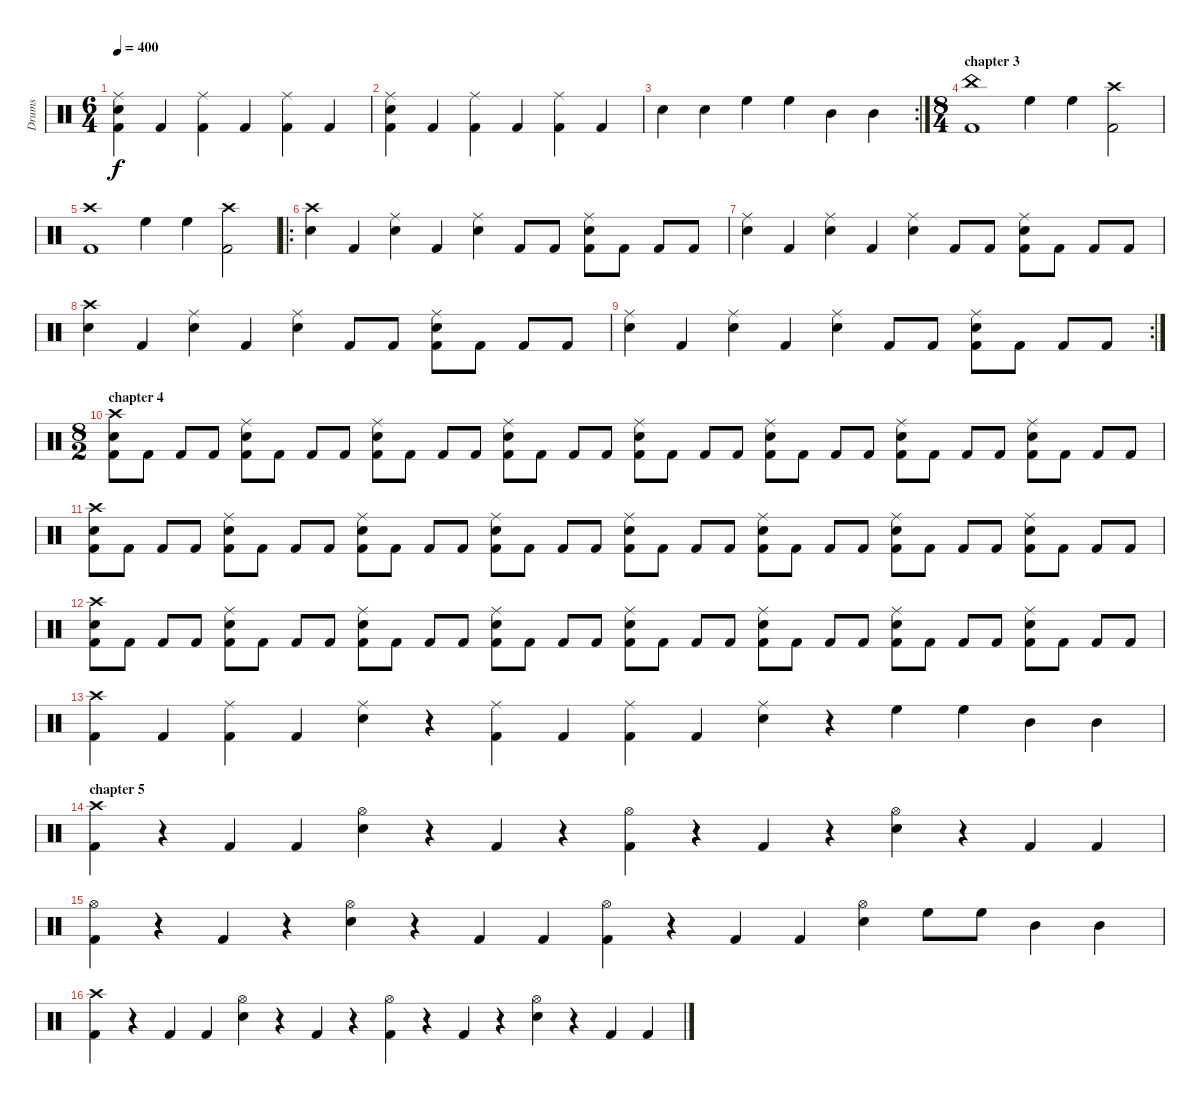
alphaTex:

\track ("Drums" "Drums") {instrument percussion}
\staff {score}
\articulation defaults
\ts (6 4)
\tempo 400
\clef neutral
\ks c
("Ride (middle)" "Snare (hit) 2" "Kick (hit) 2").4{dy f} "Kick (hit) 2".4 ("Ride (middle)" "Kick (hit) 2").4 "Kick (hit) 2".4 ("Ride (middle)" "Kick (hit) 2").4 "Kick (hit) 2".4 |
("Ride (middle)" "Snare (hit) 2" "Kick (hit) 2").4 "Kick (hit) 2".4 ("Ride (middle)" "Kick (hit) 2").4 "Kick (hit) 2".4 ("Ride (middle)" "Kick (hit) 2").4 "Kick (hit) 2".4 |
\rc 2 "Snare (hit) 2".4 "Snare (hit) 2".4 "High Floor Tom (hit)".4 "High Floor Tom (hit)".4 "Mid Tom (hit)".4 "Mid Tom (hit)".4
|
\ts (8 4)
\section ("" "chapter 3")
("China (hit)" "Kick (hit) 2").1 "High Floor Tom (hit)".4 "High Floor Tom (hit)".4 ("Crash high (hit)" "Kick (hit) 2").2 |
("Crash high (hit)" "Kick (hit) 2").1 "High Floor Tom (hit)".4 "High Floor Tom (hit)".4 ("Crash high (hit)" "Kick (hit) 2").2 |
\ro
("Crash high (hit)" "Snare (hit) 2").4 "Kick (hit) 2".4 ("Ride (middle)" "Snare (hit) 2").4 "Kick (hit) 2".4 ("Ride (middle)" "Snare (hit) 2").4 "Kick (hit) 2".8 "Kick (hit) 2".8 ("Ride (middle)" "Snare (hit) 2" "Kick (hit) 2").8 "Kick (hit) 2".8 "Kick (hit) 2".8 "Kick (hit) 2".8 |
("Ride (middle)" "Snare (hit) 2").4 "Kick (hit) 2".4 ("Ride (middle)" "Snare (hit) 2").4 "Kick (hit) 2".4 ("Ride (middle)" "Snare (hit) 2").4 "Kick (hit) 2".8 "Kick (hit) 2".8 ("Ride (middle)" "Snare (hit) 2" "Kick (hit) 2").8 "Kick (hit) 2".8 "Kick (hit) 2".8 "Kick (hit) 2".8 |
("Crash high (hit)" "Snare (hit) 2").4 "Kick (hit) 2".4 ("Ride (middle)" "Snare (hit) 2").4 "Kick (hit) 2".4 ("Ride (middle)" "Snare (hit) 2").4 "Kick (hit) 2".8 "Kick (hit) 2".8 ("Ride (middle)" "Snare (hit) 2" "Kick (hit) 2").8 "Kick (hit) 2".8 "Kick (hit) 2".8 "Kick (hit) 2".8 |
\rc 2
("Ride (middle)" "Snare (hit) 2").4 "Kick (hit) 2".4 ("Ride (middle)" "Snare (hit) 2").4 "Kick (hit) 2".4 ("Ride (middle)" "Snare (hit) 2").4 "Kick (hit) 2".8 "Kick (hit) 2".8 ("Ride (middle)" "Snare (hit) 2" "Kick (hit) 2").8 "Kick (hit) 2".8 "Kick (hit) 2".8 "Kick (hit) 2".8 |
\ts (8 2)
\section ("" "chapter 4")
("Crash high (hit)" "Snare (hit) 2" "Kick (hit) 2").8 "Kick (hit) 2".8 "Kick (hit) 2".8 "Kick (hit) 2".8 ("Ride (middle)" "Snare (hit) 2" "Kick (hit) 2").8 "Kick (hit) 2".8 "Kick (hit) 2".8 "Kick (hit) 2".8 ("Ride (middle)" "Snare (hit) 2" "Kick (hit) 2").8 "Kick (hit) 2".8 "Kick (hit) 2".8 "Kick (hit) 2".8 ("Ride (middle)" "Snare (hit) 2" "Kick (hit) 2").8 "Kick (hit) 2".8 "Kick (hit) 2".8 "Kick (hit) 2".8 ("Ride (middle)" "Snare (hit) 2" "Kick (hit) 2").8 "Kick (hit) 2".8 "Kick (hit) 2".8 "Kick (hit) 2".8 ("Ride (middle)" "Snare (hit) 2" "Kick (hit) 2").8 "Kick (hit) 2".8 "Kick (hit) 2".8 "Kick (hit) 2".8 ("Ride (middle)" "Snare (hit) 2" "Kick (hit) 2").8 "Kick (hit) 2".8 "Kick (hit) 2".8 "Kick (hit) 2".8 ("Ride (middle)" "Snare (hit) 2" "Kick (hit) 2").8 "Kick (hit) 2".8 "Kick (hit) 2".8 "Kick (hit) 2".8 |
("Crash high (hit)" "Snare (hit) 2" "Kick (hit) 2").8 "Kick (hit) 2".8 "Kick (hit) 2".8 "Kick (hit) 2".8 ("Ride (middle)" "Snare (hit) 2" "Kick (hit) 2").8 "Kick (hit) 2".8 "Kick (hit) 2".8 "Kick (hit) 2".8 ("Ride (middle)" "Snare (hit) 2" "Kick (hit) 2").8 "Kick (hit) 2".8 "Kick (hit) 2".8 "Kick (hit) 2".8 ("Ride (middle)" "Snare (hit) 2" "Kick (hit) 2").8 "Kick (hit) 2".8 "Kick (hit) 2".8 "Kick (hit) 2".8 ("Ride (middle)" "Snare (hit) 2" "Kick (hit) 2").8 "Kick (hit) 2".8 "Kick (hit) 2".8 "Kick (hit) 2".8 ("Ride (middle)" "Snare (hit) 2" "Kick (hit) 2").8 "Kick (hit) 2".8 "Kick (hit) 2".8 "Kick (hit) 2".8 ("Ride (middle)" "Snare (hit) 2" "Kick (hit) 2").8 "Kick (hit) 2".8 "Kick (hit) 2".8 "Kick (hit) 2".8 ("Ride (middle)" "Snare (hit) 2" "Kick (hit) 2").8 "Kick (hit) 2".8 "Kick (hit) 2".8 "Kick (hit) 2".8 |
("Crash high (hit)" "Snare (hit) 2" "Kick (hit) 2").8 "Kick (hit) 2".8 "Kick (hit) 2".8 "Kick (hit) 2".8 ("Ride (middle)" "Snare (hit) 2" "Kick (hit) 2").8 "Kick (hit) 2".8 "Kick (hit) 2".8 "Kick (hit) 2".8 ("Ride (middle)" "Snare (hit) 2" "Kick (hit) 2").8 "Kick (hit) 2".8 "Kick (hit) 2".8 "Kick (hit) 2".8 ("Ride (middle)" "Snare (hit) 2" "Kick (hit) 2").8 "Kick (hit) 2".8 "Kick (hit) 2".8 "Kick (hit) 2".8 ("Ride (middle)" "Snare (hit) 2" "Kick (hit) 2").8 "Kick (hit) 2".8 "Kick (hit) 2".8 "Kick (hit) 2".8 ("Ride (middle)" "Snare (hit) 2" "Kick (hit) 2").8 "Kick (hit) 2".8 "Kick (hit) 2".8 "Kick (hit) 2".8 ("Ride (middle)" "Snare (hit) 2" "Kick (hit) 2").8 "Kick (hit) 2".8 "Kick (hit) 2".8 "Kick (hit) 2".8 ("Ride (middle)" "Snare (hit) 2" "Kick (hit) 2").8 "Kick (hit) 2".8 "Kick (hit) 2".8 "Kick (hit) 2".8 |
("Crash high (hit)" "Kick (hit) 2").4 "Kick (hit) 2".4 ("Ride (middle)" "Kick (hit) 2").4 "Kick (hit) 2".4 ("Ride (middle)" "Snare (hit) 2").4 r.4 ("Ride (middle)" "Kick (hit) 2").4 "Kick (hit) 2".4 ("Ride (middle)" "Kick (hit) 2").4 "Kick (hit) 2".4 ("Ride (middle)" "Snare (hit) 2").4 r.4 "High Floor Tom (hit)".4 "High Floor Tom (hit)".4 "Mid Tom (hit)".4 "Mid Tom (hit)".4 |
\section ("" "chapter 5")
("Crash high (hit)" "Kick (hit) 2").4 r.4 "Kick (hit) 2".4 "Kick (hit) 2".4 ("Hi-Hat (open)" "Snare (hit) 2").4 r.4 "Kick (hit) 2".4 r.4 ("Hi-Hat (open)" "Kick (hit) 2").4 r.4 "Kick (hit) 2".4 r.4 ("Hi-Hat (open)" "Snare (hit) 2").4 r.4 "Kick (hit) 2".4 "Kick (hit) 2".4 |
("Hi-Hat (open)" "Kick (hit) 2").4 r.4 "Kick (hit) 2".4 r.4 ("Hi-Hat (open)" "Snare (hit) 2").4 r.4 "Kick (hit) 2".4 "Kick (hit) 2".4 ("Hi-Hat (open)" "Kick (hit) 2").4 r.4 "Kick (hit) 2".4 "Kick (hit) 2".4 ("Hi-Hat (open)" "Snare (hit) 2").4 "High Floor Tom (hit)".8 "High Floor Tom (hit)".8 "Mid Tom (hit)".4 "Mid Tom (hit)".4 |
("Crash high (hit)" "Kick (hit) 2").4 r.4 "Kick (hit) 2".4 "Kick (hit) 2".4 ("Hi-Hat (open)" "Snare (hit) 2").4 r.4 "Kick (hit) 2".4 r.4 ("Hi-Hat (open)" "Kick (hit) 2").4 r.4 "Kick (hit) 2".4 r.4 ("Hi-Hat (open)" "Snare (hit) 2").4 r.4 "Kick (hit) 2".4 "Kick (hit) 2".4
